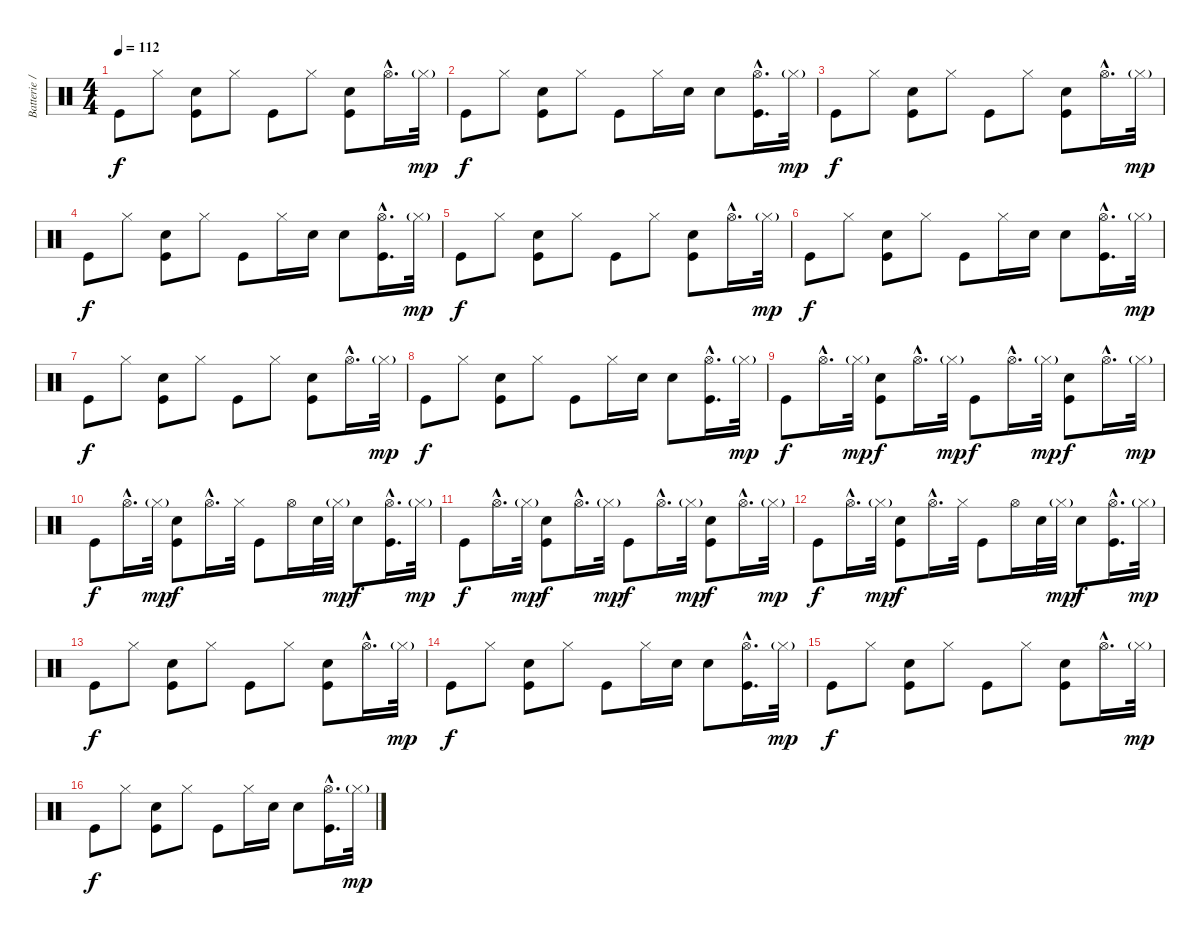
\track ("Batterie // Jerome Dillon" "Batterie /") {instrument percussion}
\staff {score}
\articulation defaults
\ts (4 4)
\tempo 112
\clef neutral
\ks c "Kick (hit)".8{dy f} "Hi-Hat (closed)".8
("Snare (hit) 2" "Kick (hit)").8 "Hi-Hat (closed)".8 "Kick (hit)".8 "Hi-Hat (closed)".8 ("Snare (hit) 2" "Kick (hit)").8 "Hi-Hat (open)"{hac}.16{d} "Hi-Hat (closed)"{g}.32{dy mp} |
"Kick (hit)".8{dy f} "Hi-Hat (closed)".8 ("Snare (hit) 2" "Kick (hit)").8 "Hi-Hat (closed)".8 "Kick (hit)".8 "Hi-Hat (closed)".16 "Snare (hit) 2".16 "Snare (hit) 2".8 ("Hi-Hat (open)"{hac} "Kick (hit)"{hac}).16{d} "Hi-Hat (closed)"{g}.32{dy mp} |
"Kick (hit)".8{dy f} "Hi-Hat (closed)".8 ("Snare (hit) 2" "Kick (hit)").8 "Hi-Hat (closed)".8 "Kick (hit)".8 "Hi-Hat (closed)".8 ("Snare (hit) 2" "Kick (hit)").8 "Hi-Hat (open)"{hac}.16{d} "Hi-Hat (closed)"{g}.32{dy mp} |
"Kick (hit)".8{dy f} "Hi-Hat (closed)".8 ("Snare (hit) 2" "Kick (hit)").8 "Hi-Hat (closed)".8 "Kick (hit)".8 "Hi-Hat (closed)".16 "Snare (hit) 2".16 "Snare (hit) 2".8 ("Hi-Hat (open)"{hac} "Kick (hit)"{hac}).16{d} "Hi-Hat (closed)"{g}.32{dy mp} |
"Kick (hit)".8{dy f} "Hi-Hat (closed)".8 ("Snare (hit) 2" "Kick (hit)").8 "Hi-Hat (closed)".8 "Kick (hit)".8 "Hi-Hat (closed)".8 ("Snare (hit) 2" "Kick (hit)").8 "Hi-Hat (open)"{hac}.16{d} "Hi-Hat (closed)"{g}.32{dy mp} |
"Kick (hit)".8{dy f} "Hi-Hat (closed)".8 ("Snare (hit) 2" "Kick (hit)").8 "Hi-Hat (closed)".8 "Kick (hit)".8 "Hi-Hat (closed)".16 "Snare (hit) 2".16 "Snare (hit) 2".8 ("Hi-Hat (open)"{hac} "Kick (hit)"{hac}).16{d} "Hi-Hat (closed)"{g}.32{dy mp} |
"Kick (hit)".8{dy f} "Hi-Hat (closed)".8 ("Snare (hit) 2" "Kick (hit)").8 "Hi-Hat (closed)".8 "Kick (hit)".8 "Hi-Hat (closed)".8 ("Snare (hit) 2" "Kick (hit)").8 "Hi-Hat (open)"{hac}.16{d} "Hi-Hat (closed)"{g}.32{dy mp} |
"Kick (hit)".8{dy f} "Hi-Hat (closed)".8 ("Snare (hit) 2" "Kick (hit)").8 "Hi-Hat (closed)".8 "Kick (hit)".8 "Hi-Hat (closed)".16 "Snare (hit) 2".16 "Snare (hit) 2".8 ("Hi-Hat (open)"{hac} "Kick (hit)"{hac}).16{d} "Hi-Hat (closed)"{g}.32{dy mp} |
"Kick (hit)".8{dy f} "Hi-Hat (open)"{hac}.16{d} "Hi-Hat (closed)"{g}.32{dy mp} ("Snare (hit) 2" "Kick (hit)").8{dy f} "Hi-Hat (open)"{hac}.16{d} "Hi-Hat (closed)"{g}.32{dy mp} "Kick (hit)".8{dy f} "Hi-Hat (open)"{hac}.16{d} "Hi-Hat (closed)"{g}.32{dy mp} ("Snare (hit) 2" "Kick (hit)").8{dy f} "Hi-Hat (open)"{hac}.16{d} "Hi-Hat (closed)"{g}.32{dy mp} |
"Kick (hit)".8{dy f} "Hi-Hat (open)"{hac}.16{d} "Hi-Hat (closed)"{g}.32{dy mp} ("Snare (hit) 2" "Kick (hit)").8{dy f} "Hi-Hat (open)"{hac}.16{d} "Hi-Hat (closed)".32 "Kick (hit)".8 "Hi-Hat (open)".16 "Snare (hit) 2".32 "Hi-Hat (closed)"{g}.32{dy mp} "Snare (hit) 2".8{dy f} ("Hi-Hat (open)"{hac} "Kick (hit)"{hac}).16{d} "Hi-Hat (closed)"{g}.32{dy mp} |
"Kick (hit)".8{dy f} "Hi-Hat (open)"{hac}.16{d} "Hi-Hat (closed)"{g}.32{dy mp} ("Snare (hit) 2" "Kick (hit)").8{dy f} "Hi-Hat (open)"{hac}.16{d} "Hi-Hat (closed)"{g}.32{dy mp} "Kick (hit)".8{dy f} "Hi-Hat (open)"{hac}.16{d} "Hi-Hat (closed)"{g}.32{dy mp} ("Snare (hit) 2" "Kick (hit)").8{dy f} "Hi-Hat (open)"{hac}.16{d} "Hi-Hat (closed)"{g}.32{dy mp} |
"Kick (hit)".8{dy f} "Hi-Hat (open)"{hac}.16{d} "Hi-Hat (closed)"{g}.32{dy mp} ("Snare (hit) 2" "Kick (hit)").8{dy f} "Hi-Hat (open)"{hac}.16{d} "Hi-Hat (closed)".32 "Kick (hit)".8 "Hi-Hat (open)".16 "Snare (hit) 2".32 "Hi-Hat (closed)"{g}.32{dy mp} "Snare (hit) 2".8{dy f} ("Hi-Hat (open)"{hac} "Kick (hit)"{hac}).16{d} "Hi-Hat (closed)"{g}.32{dy mp} |
"Kick (hit)".8{dy f} "Hi-Hat (closed)".8 ("Snare (hit) 2" "Kick (hit)").8 "Hi-Hat (closed)".8 "Kick (hit)".8 "Hi-Hat (closed)".8 ("Snare (hit) 2" "Kick (hit)").8 "Hi-Hat (open)"{hac}.16{d} "Hi-Hat (closed)"{g}.32{dy mp} |
"Kick (hit)".8{dy f} "Hi-Hat (closed)".8 ("Snare (hit) 2" "Kick (hit)").8 "Hi-Hat (closed)".8 "Kick (hit)".8 "Hi-Hat (closed)".16 "Snare (hit) 2".16 "Snare (hit) 2".8 ("Hi-Hat (open)"{hac} "Kick (hit)"{hac}).16{d} "Hi-Hat (closed)"{g}.32{dy mp} |
"Kick (hit)".8{dy f} "Hi-Hat (closed)".8 ("Snare (hit) 2" "Kick (hit)").8 "Hi-Hat (closed)".8 "Kick (hit)".8 "Hi-Hat (closed)".8 ("Snare (hit) 2" "Kick (hit)").8 "Hi-Hat (open)"{hac}.16{d} "Hi-Hat (closed)"{g}.32{dy mp} |
"Kick (hit)".8{dy f} "Hi-Hat (closed)".8 ("Snare (hit) 2" "Kick (hit)").8 "Hi-Hat (closed)".8 "Kick (hit)".8 "Hi-Hat (closed)".16 "Snare (hit) 2".16 "Snare (hit) 2".8 ("Hi-Hat (open)"{hac} "Kick (hit)"{hac}).16{d} "Hi-Hat (closed)"{g}.32{dy mp}
